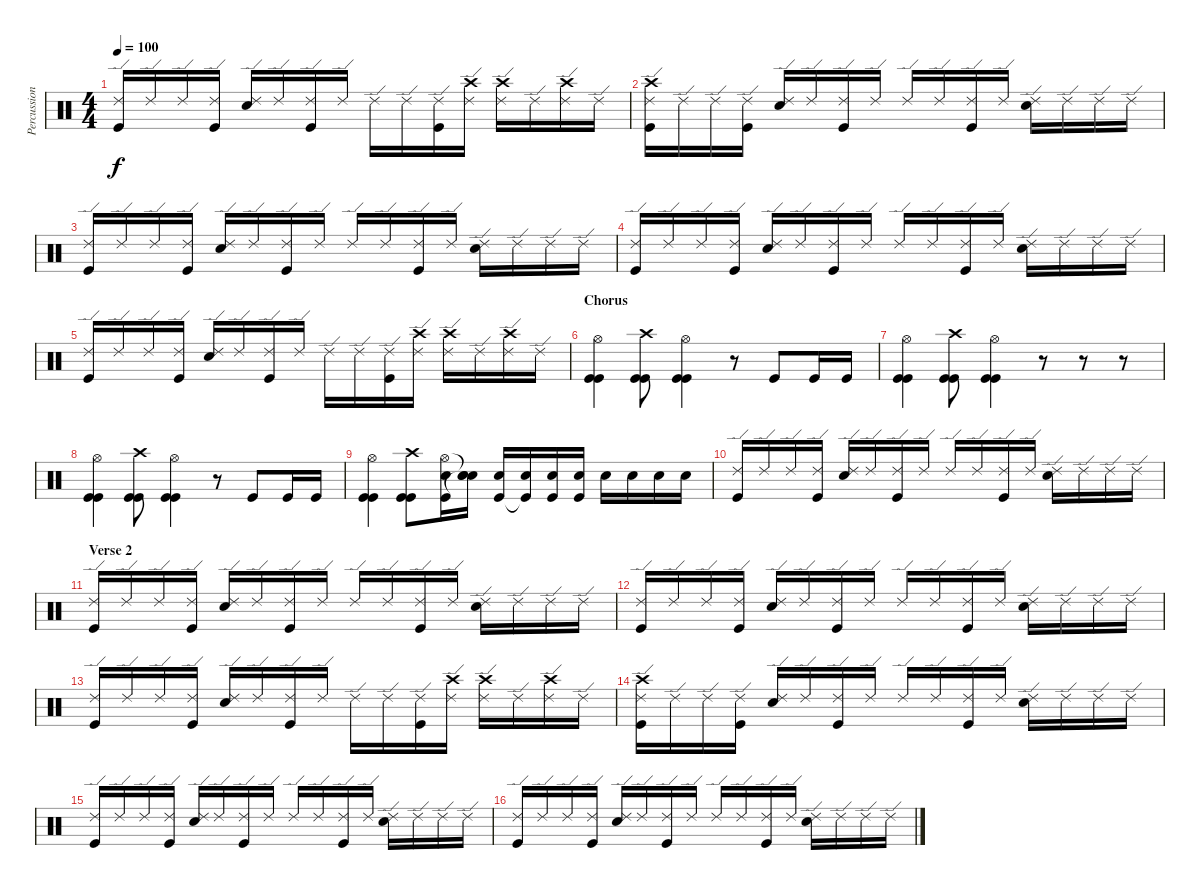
\track ("Percussion" "Percussion") {instrument percussion}
\staff {score}
\articulation defaults
\ts (4 4)
\tempo 100
\clef neutral
\ks c
("Ride (edge) 2" "Kick (hit)").16{dy f} "Ride (edge) 2".16 "Ride (edge) 2".16 ("Ride (edge) 2" "Kick (hit)").16 ("Ride (edge) 2" "Snare (hit) 2").16 "Ride (edge) 2".16 ("Ride (edge) 2" "Kick (hit)").16 "Ride (edge) 2".16 "Ride (edge) 2".16 "Ride (edge) 2".16 ("Ride (edge) 2" "Kick (hit)").16 ("Ride (edge) 2" "Crash high (hit)").16 ("Ride (edge) 2" "Crash high (hit)").16 "Ride (edge) 2".16 ("Ride (edge) 2" "Crash high (hit)").16 "Ride (edge) 2".16 |
("Ride (edge) 2" "Crash high (hit)" "Kick (hit)").16 "Ride (edge) 2".16 "Ride (edge) 2".16 ("Ride (edge) 2" "Kick (hit)").16 ("Ride (edge) 2" "Snare (hit) 2").16 "Ride (edge) 2".16 ("Ride (edge) 2" "Kick (hit)").16 "Ride (edge) 2".16 "Ride (edge) 2".16 "Ride (edge) 2".16 ("Ride (edge) 2" "Kick (hit)").16 "Ride (edge) 2".16 ("Ride (edge) 2" "Snare (hit) 2").16 "Ride (edge) 2".16 "Ride (edge) 2".16 "Ride (edge) 2".16 |
("Ride (edge) 2" "Kick (hit)").16 "Ride (edge) 2".16 "Ride (edge) 2".16 ("Ride (edge) 2" "Kick (hit)").16 ("Ride (edge) 2" "Snare (hit) 2").16 "Ride (edge) 2".16 ("Ride (edge) 2" "Kick (hit)").16 "Ride (edge) 2".16 "Ride (edge) 2".16 "Ride (edge) 2".16 ("Ride (edge) 2" "Kick (hit)").16 "Ride (edge) 2".16 ("Ride (edge) 2" "Snare (hit) 2").16 "Ride (edge) 2".16 "Ride (edge) 2".16 "Ride (edge) 2".16 |
("Ride (edge) 2" "Kick (hit)").16 "Ride (edge) 2".16 "Ride (edge) 2".16 ("Ride (edge) 2" "Kick (hit)").16 ("Ride (edge) 2" "Snare (hit) 2").16 "Ride (edge) 2".16 ("Ride (edge) 2" "Kick (hit)").16 "Ride (edge) 2".16 "Ride (edge) 2".16 "Ride (edge) 2".16 ("Ride (edge) 2" "Kick (hit)").16 "Ride (edge) 2".16 ("Ride (edge) 2" "Snare (hit) 2").16 "Ride (edge) 2".16 "Ride (edge) 2".16 "Ride (edge) 2".16 |
("Ride (edge) 2" "Kick (hit)").16 "Ride (edge) 2".16 "Ride (edge) 2".16 ("Ride (edge) 2" "Kick (hit)").16 ("Ride (edge) 2" "Snare (hit) 2").16 "Ride (edge) 2".16 ("Ride (edge) 2" "Kick (hit)").16 "Ride (edge) 2".16 "Ride (edge) 2".16 "Ride (edge) 2".16 ("Ride (edge) 2" "Kick (hit)").16 ("Ride (edge) 2" "Crash high (hit)").16 ("Ride (edge) 2" "Crash high (hit)").16 "Ride (edge) 2".16 ("Ride (edge) 2" "Crash high (hit)").16 "Ride (edge) 2".16 |
\section ("" "Chorus")
("Hi-Hat (open)" "Kick (hit)" "Kick (hit)").4 ("Crash high (hit)" "Kick (hit)" "Kick (hit)").8 ("Hi-Hat (open)" "Kick (hit)" "Kick (hit)").4 r.8 "Kick (hit)".8 "Kick (hit)".16 "Kick (hit)".16 |
("Hi-Hat (open)" "Kick (hit)" "Kick (hit)").4 ("Crash high (hit)" "Kick (hit)" "Kick (hit)").8 ("Hi-Hat (open)" "Kick (hit)" "Kick (hit)").4 r.8 r.8 r.8 |
("Hi-Hat (open)" "Kick (hit)" "Kick (hit)").4 ("Crash high (hit)" "Kick (hit)" "Kick (hit)").8 ("Hi-Hat (open)" "Kick (hit)" "Kick (hit)").4 r.8 "Kick (hit)".8 "Kick (hit)".16 "Kick (hit)".16 |
("Hi-Hat (open)" "Kick (hit)" "Kick (hit)").4 ("Crash high (hit)" "Kick (hit)" "Kick (hit)").8 ("Hi-Hat (open)" "Snare (hit) 2" "Kick (hit)").16 ("Snare (hit)"{t} "Snare (hit) 2" "Snare (hit)"{t}).16 ("Snare (hit) 2" "Kick (hit)").16 ("Snare (hit) 2" "Kick (hit)"{t}).16 ("Snare (hit) 2" "Kick (hit)").16 ("Snare (hit) 2" "Kick (hit)").16 "Snare (hit) 2".16 "Snare (hit) 2".16 "Snare (hit) 2".16 "Snare (hit) 2".16 |
("Ride (edge) 2" "Kick (hit)").16 "Ride (edge) 2".16 "Ride (edge) 2".16 ("Ride (edge) 2" "Kick (hit)").16 ("Ride (edge) 2" "Snare (hit) 2").16 "Ride (edge) 2".16 ("Ride (edge) 2" "Kick (hit)").16 "Ride (edge) 2".16 "Ride (edge) 2".16 "Ride (edge) 2".16 ("Ride (edge) 2" "Kick (hit)").16 "Ride (edge) 2".16 ("Ride (edge) 2" "Snare (hit) 2").16 "Ride (edge) 2".16 "Ride (edge) 2".16 "Ride (edge) 2".16 |
\section ("" "Verse 2")
("Ride (edge) 2" "Kick (hit)").16 "Ride (edge) 2".16 "Ride (edge) 2".16 ("Ride (edge) 2" "Kick (hit)").16 ("Ride (edge) 2" "Snare (hit) 2").16 "Ride (edge) 2".16 ("Ride (edge) 2" "Kick (hit)").16 "Ride (edge) 2".16 "Ride (edge) 2".16 "Ride (edge) 2".16 ("Ride (edge) 2" "Kick (hit)").16 "Ride (edge) 2".16 ("Ride (edge) 2" "Snare (hit) 2").16 "Ride (edge) 2".16 "Ride (edge) 2".16 "Ride (edge) 2".16 |
("Ride (edge) 2" "Kick (hit)").16 "Ride (edge) 2".16 "Ride (edge) 2".16 ("Ride (edge) 2" "Kick (hit)").16 ("Ride (edge) 2" "Snare (hit) 2").16 "Ride (edge) 2".16 ("Ride (edge) 2" "Kick (hit)").16 "Ride (edge) 2".16 "Ride (edge) 2".16 "Ride (edge) 2".16 ("Ride (edge) 2" "Kick (hit)").16 "Ride (edge) 2".16 ("Ride (edge) 2" "Snare (hit) 2").16 "Ride (edge) 2".16 "Ride (edge) 2".16 "Ride (edge) 2".16 |
("Ride (edge) 2" "Kick (hit)").16 "Ride (edge) 2".16 "Ride (edge) 2".16 ("Ride (edge) 2" "Kick (hit)").16 ("Ride (edge) 2" "Snare (hit) 2").16 "Ride (edge) 2".16 ("Ride (edge) 2" "Kick (hit)").16 "Ride (edge) 2".16 "Ride (edge) 2".16 "Ride (edge) 2".16 ("Ride (edge) 2" "Kick (hit)").16 ("Ride (edge) 2" "Crash high (hit)").16 ("Ride (edge) 2" "Crash high (hit)").16 "Ride (edge) 2".16 ("Ride (edge) 2" "Crash high (hit)").16 "Ride (edge) 2".16 |
("Ride (edge) 2" "Crash high (hit)" "Kick (hit)").16 "Ride (edge) 2".16 "Ride (edge) 2".16 ("Ride (edge) 2" "Kick (hit)").16 ("Ride (edge) 2" "Snare (hit) 2").16 "Ride (edge) 2".16 ("Ride (edge) 2" "Kick (hit)").16 "Ride (edge) 2".16 "Ride (edge) 2".16 "Ride (edge) 2".16 ("Ride (edge) 2" "Kick (hit)").16 "Ride (edge) 2".16 ("Ride (edge) 2" "Snare (hit) 2").16 "Ride (edge) 2".16 "Ride (edge) 2".16 "Ride (edge) 2".16 |
("Ride (edge) 2" "Kick (hit)").16 "Ride (edge) 2".16 "Ride (edge) 2".16 ("Ride (edge) 2" "Kick (hit)").16 ("Ride (edge) 2" "Snare (hit) 2").16 "Ride (edge) 2".16 ("Ride (edge) 2" "Kick (hit)").16 "Ride (edge) 2".16 "Ride (edge) 2".16 "Ride (edge) 2".16 ("Ride (edge) 2" "Kick (hit)").16 "Ride (edge) 2".16 ("Ride (edge) 2" "Snare (hit) 2").16 "Ride (edge) 2".16 "Ride (edge) 2".16 "Ride (edge) 2".16 |
("Ride (edge) 2" "Kick (hit)").16 "Ride (edge) 2".16 "Ride (edge) 2".16 ("Ride (edge) 2" "Kick (hit)").16 ("Ride (edge) 2" "Snare (hit) 2").16 "Ride (edge) 2".16 ("Ride (edge) 2" "Kick (hit)").16 "Ride (edge) 2".16 "Ride (edge) 2".16 "Ride (edge) 2".16 ("Ride (edge) 2" "Kick (hit)").16 "Ride (edge) 2".16 ("Ride (edge) 2" "Snare (hit) 2").16 "Ride (edge) 2".16 "Ride (edge) 2".16 "Ride (edge) 2".16
